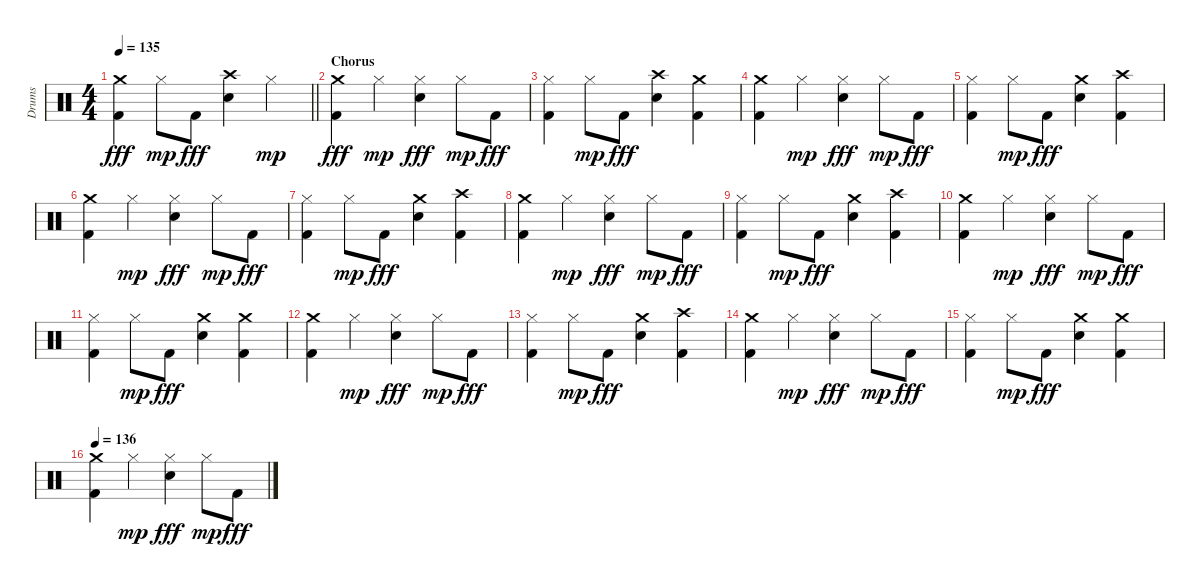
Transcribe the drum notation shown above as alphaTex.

\track ("Drums" "Drums") {instrument percussion}
\staff {score}
\articulation defaults
\ts (4 4)
\tempo 135
\clef neutral
\barLineRight lightlight
\ks c
("Crash medium (hit)" "Kick (hit) 2").4{dy fff} "Hi-Hat (closed)".8{dy mp} "Kick (hit) 2".8{dy fff} ("Crash high (hit)" "Electric Snare (hit)").4 "Hi-Hat (closed)".4{dy mp} |
\section ("" "Chorus")
("Crash medium (hit)" "Kick (hit) 2").4{dy fff} "Hi-Hat (closed)".4{dy mp} ("Hi-Hat (closed)" "Electric Snare (hit)").4{dy fff} "Hi-Hat (closed)".8{dy mp} "Kick (hit) 2".8{dy fff} |
("Hi-Hat (closed)" "Kick (hit) 2").4 "Hi-Hat (closed)".8{dy mp} "Kick (hit) 2".8{dy fff} ("Crash high (hit)" "Electric Snare (hit)").4 ("Crash medium (hit)" "Kick (hit) 2").4 |
("Crash medium (hit)" "Kick (hit) 2").4 "Hi-Hat (closed)".4{dy mp} ("Hi-Hat (closed)" "Electric Snare (hit)").4{dy fff} "Hi-Hat (closed)".8{dy mp} "Kick (hit) 2".8{dy fff} |
("Hi-Hat (closed)" "Kick (hit) 2").4 "Hi-Hat (closed)".8{dy mp} "Kick (hit) 2".8{dy fff} ("Crash medium (hit)" "Electric Snare (hit)").4 ("Crash high (hit)" "Kick (hit) 2").4 |
("Crash medium (hit)" "Kick (hit) 2").4 "Hi-Hat (closed)".4{dy mp} ("Hi-Hat (closed)" "Electric Snare (hit)").4{dy fff} "Hi-Hat (closed)".8{dy mp} "Kick (hit) 2".8{dy fff} |
("Hi-Hat (closed)" "Kick (hit) 2").4 "Hi-Hat (closed)".8{dy mp} "Kick (hit) 2".8{dy fff} ("Crash medium (hit)" "Electric Snare (hit)").4 ("Crash high (hit)" "Kick (hit) 2").4 |
("Crash medium (hit)" "Kick (hit) 2").4 "Hi-Hat (closed)".4{dy mp} ("Hi-Hat (closed)" "Electric Snare (hit)").4{dy fff} "Hi-Hat (closed)".8{dy mp} "Kick (hit) 2".8{dy fff} |
("Hi-Hat (closed)" "Kick (hit) 2").4 "Hi-Hat (closed)".8{dy mp} "Kick (hit) 2".8{dy fff} ("Crash medium (hit)" "Electric Snare (hit)").4 ("Crash high (hit)" "Kick (hit) 2").4 |
("Crash medium (hit)" "Kick (hit) 2").4 "Hi-Hat (closed)".4{dy mp} ("Hi-Hat (closed)" "Electric Snare (hit)").4{dy fff} "Hi-Hat (closed)".8{dy mp} "Kick (hit) 2".8{dy fff} |
("Hi-Hat (closed)" "Kick (hit) 2").4 "Hi-Hat (closed)".8{dy mp} "Kick (hit) 2".8{dy fff} ("Crash medium (hit)" "Electric Snare (hit)").4 ("Crash medium (hit)" "Kick (hit) 2").4 |
("Crash medium (hit)" "Kick (hit) 2").4 "Hi-Hat (closed)".4{dy mp} ("Hi-Hat (closed)" "Electric Snare (hit)").4{dy fff} "Hi-Hat (closed)".8{dy mp} "Kick (hit) 2".8{dy fff} |
("Hi-Hat (closed)" "Kick (hit) 2").4 "Hi-Hat (closed)".8{dy mp} "Kick (hit) 2".8{dy fff} ("Crash medium (hit)" "Electric Snare (hit)").4 ("Crash high (hit)" "Kick (hit) 2").4 |
("Crash medium (hit)" "Kick (hit) 2").4 "Hi-Hat (closed)".4{dy mp} ("Hi-Hat (closed)" "Electric Snare (hit)").4{dy fff} "Hi-Hat (closed)".8{dy mp} "Kick (hit) 2".8{dy fff} |
("Hi-Hat (closed)" "Kick (hit) 2").4 "Hi-Hat (closed)".8{dy mp} "Kick (hit) 2".8{dy fff} ("Crash medium (hit)" "Electric Snare (hit)").4 ("Crash medium (hit)" "Kick (hit) 2").4 |
\tempo 136
("Crash medium (hit)" "Kick (hit) 2").4 "Hi-Hat (closed)".4{dy mp} ("Hi-Hat (closed)" "Electric Snare (hit)").4{dy fff} "Hi-Hat (closed)".8{dy mp} "Kick (hit) 2".8{dy fff}
